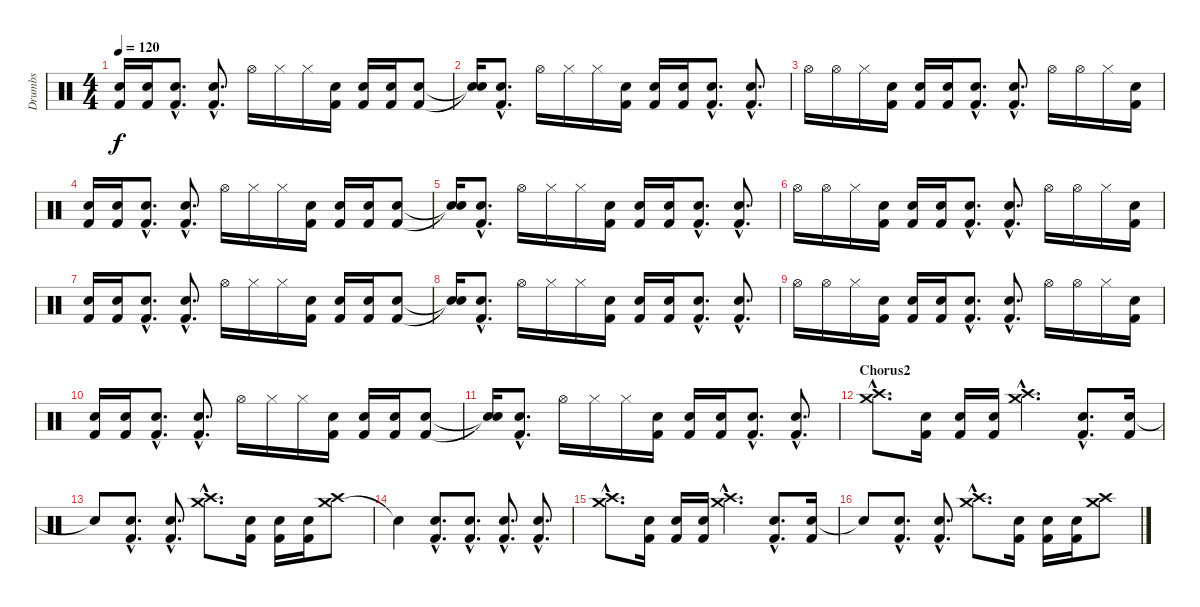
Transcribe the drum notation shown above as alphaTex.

\track ("Drumbs" "Drumbs") {instrument percussion}
\staff {score}
\articulation defaults
\ts (4 4)
\tempo 120
\clef neutral
\ks c
("Electric Snare (hit)" "Kick (hit) 2").16{dy f} ("Electric Snare (hit)" "Kick (hit) 2").16 ("Electric Snare (hit)"{hac} "Kick (hit) 2"{hac}).8{d} ("Electric Snare (hit)"{hac} "Kick (hit) 2"{hac}).8{d} "Hi-Hat (open)".16 "Hi-Hat (closed)".16 "Hi-Hat (closed)".16 ("Electric Snare (hit)" "Kick (hit) 2").16 ("Electric Snare (hit)" "Kick (hit) 2").16 ("Electric Snare (hit)" "Kick (hit) 2").16 ("Electric Snare (hit)" "Kick (hit) 2").8 |
("Snare (hit)"{t} "Snare (hit)"{t}).16 ("Electric Snare (hit)"{hac} "Kick (hit) 2"{hac}).8{d} "Hi-Hat (open)".16 "Hi-Hat (closed)".16 "Hi-Hat (closed)".16 ("Electric Snare (hit)" "Kick (hit) 2").16 ("Electric Snare (hit)" "Kick (hit) 2").16 ("Electric Snare (hit)" "Kick (hit) 2").16 ("Electric Snare (hit)"{hac} "Kick (hit) 2"{hac}).8{d} ("Electric Snare (hit)"{hac} "Kick (hit) 2"{hac}).8{d} |
"Hi-Hat (open)".16 "Hi-Hat (open)".16 "Hi-Hat (closed)".16 ("Electric Snare (hit)" "Kick (hit) 2").16 ("Electric Snare (hit)" "Kick (hit) 2").16 ("Electric Snare (hit)" "Kick (hit) 2").16 ("Electric Snare (hit)"{hac} "Kick (hit) 2"{hac}).8{d} ("Electric Snare (hit)"{hac} "Kick (hit) 2"{hac}).8{d} "Hi-Hat (open)".16 "Hi-Hat (open)".16 "Hi-Hat (closed)".16 ("Electric Snare (hit)" "Kick (hit) 2").16 |
("Electric Snare (hit)" "Kick (hit) 2").16 ("Electric Snare (hit)" "Kick (hit) 2").16 ("Electric Snare (hit)"{hac} "Kick (hit) 2"{hac}).8{d} ("Electric Snare (hit)"{hac} "Kick (hit) 2"{hac}).8{d} "Hi-Hat (open)".16 "Hi-Hat (closed)".16 "Hi-Hat (closed)".16 ("Electric Snare (hit)" "Kick (hit) 2").16 ("Electric Snare (hit)" "Kick (hit) 2").16 ("Electric Snare (hit)" "Kick (hit) 2").16 ("Electric Snare (hit)" "Kick (hit) 2").8 |
("Snare (hit)"{t} "Snare (hit)"{t}).16 ("Electric Snare (hit)"{hac} "Kick (hit) 2"{hac}).8{d} "Hi-Hat (open)".16 "Hi-Hat (closed)".16 "Hi-Hat (closed)".16 ("Electric Snare (hit)" "Kick (hit) 2").16 ("Electric Snare (hit)" "Kick (hit) 2").16 ("Electric Snare (hit)" "Kick (hit) 2").16 ("Electric Snare (hit)"{hac} "Kick (hit) 2"{hac}).8{d} ("Electric Snare (hit)"{hac} "Kick (hit) 2"{hac}).8{d} |
"Hi-Hat (open)".16 "Hi-Hat (open)".16 "Hi-Hat (closed)".16 ("Electric Snare (hit)" "Kick (hit) 2").16 ("Electric Snare (hit)" "Kick (hit) 2").16 ("Electric Snare (hit)" "Kick (hit) 2").16 ("Electric Snare (hit)"{hac} "Kick (hit) 2"{hac}).8{d} ("Electric Snare (hit)"{hac} "Kick (hit) 2"{hac}).8{d} "Hi-Hat (open)".16 "Hi-Hat (open)".16 "Hi-Hat (closed)".16 ("Electric Snare (hit)" "Kick (hit) 2").16 |
("Electric Snare (hit)" "Kick (hit) 2").16 ("Electric Snare (hit)" "Kick (hit) 2").16 ("Electric Snare (hit)"{hac} "Kick (hit) 2"{hac}).8{d} ("Electric Snare (hit)"{hac} "Kick (hit) 2"{hac}).8{d} "Hi-Hat (open)".16 "Hi-Hat (closed)".16 "Hi-Hat (closed)".16 ("Electric Snare (hit)" "Kick (hit) 2").16 ("Electric Snare (hit)" "Kick (hit) 2").16 ("Electric Snare (hit)" "Kick (hit) 2").16 ("Electric Snare (hit)" "Kick (hit) 2").8 |
("Snare (hit)"{t} "Snare (hit)"{t}).16 ("Electric Snare (hit)"{hac} "Kick (hit) 2"{hac}).8{d} "Hi-Hat (open)".16 "Hi-Hat (closed)".16 "Hi-Hat (closed)".16 ("Electric Snare (hit)" "Kick (hit) 2").16 ("Electric Snare (hit)" "Kick (hit) 2").16 ("Electric Snare (hit)" "Kick (hit) 2").16 ("Electric Snare (hit)"{hac} "Kick (hit) 2"{hac}).8{d} ("Electric Snare (hit)"{hac} "Kick (hit) 2"{hac}).8{d} |
"Hi-Hat (open)".16 "Hi-Hat (open)".16 "Hi-Hat (closed)".16 ("Electric Snare (hit)" "Kick (hit) 2").16 ("Electric Snare (hit)" "Kick (hit) 2").16 ("Electric Snare (hit)" "Kick (hit) 2").16 ("Electric Snare (hit)"{hac} "Kick (hit) 2"{hac}).8{d} ("Electric Snare (hit)"{hac} "Kick (hit) 2"{hac}).8{d} "Hi-Hat (open)".16 "Hi-Hat (open)".16 "Hi-Hat (closed)".16 ("Electric Snare (hit)" "Kick (hit) 2").16 |
("Electric Snare (hit)" "Kick (hit) 2").16 ("Electric Snare (hit)" "Kick (hit) 2").16 ("Electric Snare (hit)"{hac} "Kick (hit) 2"{hac}).8{d} ("Electric Snare (hit)"{hac} "Kick (hit) 2"{hac}).8{d} "Hi-Hat (open)".16 "Hi-Hat (closed)".16 "Hi-Hat (closed)".16 ("Electric Snare (hit)" "Kick (hit) 2").16 ("Electric Snare (hit)" "Kick (hit) 2").16 ("Electric Snare (hit)" "Kick (hit) 2").16 ("Electric Snare (hit)" "Kick (hit) 2").8 |
("Snare (hit)"{t} "Snare (hit)"{t}).16 ("Electric Snare (hit)"{hac} "Kick (hit) 2"{hac}).8{d} "Hi-Hat (open)".16 "Hi-Hat (closed)".16 "Hi-Hat (closed)".16 ("Electric Snare (hit)" "Kick (hit) 2").16 ("Electric Snare (hit)" "Kick (hit) 2").16 ("Electric Snare (hit)" "Kick (hit) 2").16 ("Electric Snare (hit)"{hac} "Kick (hit) 2"{hac}).8{d} ("Electric Snare (hit)"{hac} "Kick (hit) 2"{hac}).8{d} |
\section ("" "Chorus2")
("Crash high (hit)"{hac} "Crash medium (hit)"{hac}).8{d} ("Electric Snare (hit)" "Kick (hit) 2").16 ("Electric Snare (hit)" "Kick (hit) 2").16 ("Electric Snare (hit)" "Kick (hit) 2").16 ("Crash high (hit)"{hac} "Crash medium (hit)"{hac}).4{d} ("Electric Snare (hit)"{hac} "Kick (hit) 2"{hac}).8{d} ("Electric Snare (hit)" "Kick (hit) 2").16 |
"Snare (hit)"{t}.8 ("Electric Snare (hit)"{hac} "Kick (hit) 2"{hac}).8{d} ("Electric Snare (hit)"{hac} "Kick (hit) 2"{hac}).8{d} ("Crash medium (hit)"{hac} "Crash high (hit)"{hac}).8{d} ("Electric Snare (hit)" "Kick (hit) 2").16 ("Electric Snare (hit)" "Kick (hit) 2").16 ("Electric Snare (hit)" "Kick (hit) 2").16 ("Crash medium (hit)" "Crash high (hit)").8 |
"Snare (hit)"{t}.4 ("Electric Snare (hit)"{hac} "Kick (hit) 2"{hac}).8{d} ("Electric Snare (hit)"{hac} "Kick (hit) 2"{hac}).8{d} ("Electric Snare (hit)"{hac} "Kick (hit) 2"{hac}).8{d} ("Electric Snare (hit)"{hac} "Kick (hit) 2"{hac}).8{d} |
("Crash high (hit)"{hac} "Crash medium (hit)"{hac}).8{d} ("Electric Snare (hit)" "Kick (hit) 2").16 ("Electric Snare (hit)" "Kick (hit) 2").16 ("Electric Snare (hit)" "Kick (hit) 2").16 ("Crash high (hit)"{hac} "Crash medium (hit)"{hac}).4{d} ("Electric Snare (hit)"{hac} "Kick (hit) 2"{hac}).8{d} ("Electric Snare (hit)" "Kick (hit) 2").16 |
"Snare (hit)"{t}.8 ("Electric Snare (hit)"{hac} "Kick (hit) 2"{hac}).8{d} ("Electric Snare (hit)"{hac} "Kick (hit) 2"{hac}).8{d} ("Crash medium (hit)"{hac} "Crash high (hit)"{hac}).8{d} ("Electric Snare (hit)" "Kick (hit) 2").16 ("Electric Snare (hit)" "Kick (hit) 2").16 ("Electric Snare (hit)" "Kick (hit) 2").16 ("Crash medium (hit)" "Crash high (hit)").8
